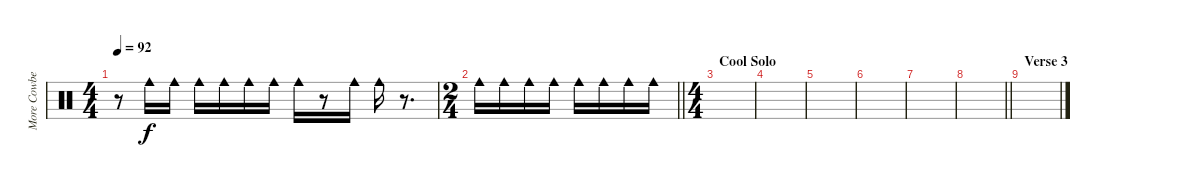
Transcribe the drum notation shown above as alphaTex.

\track ("More Cowbell!" "More Cowbe") {instrument percussion}
\staff {score}
\articulation defaults
\ts (4 4)
\tempo 92
\clef neutral
\ks c
r.8{dy f} "Cowbell medium (hit)".16 "Cowbell medium (hit)".16 "Cowbell medium (hit)".16 "Cowbell medium (hit)".16 "Cowbell medium (hit)".16 "Cowbell medium (hit)".16 "Cowbell medium (hit)".16 r.8 "Cowbell medium (hit)".16 "Cowbell medium (hit)".16 r.8{d} |
\ts (2 4)
\barLineRight lightlight "Cowbell medium (hit)".16 "Cowbell medium (hit)".16 "Cowbell medium (hit)".16 "Cowbell medium (hit)".16 "Cowbell medium (hit)".16 "Cowbell medium (hit)".16 "Cowbell medium (hit)".16 "Cowbell medium (hit)".16
|
\ts (4 4)
\section ("" "Cool Solo")
|
|
|
|
|
\barLineRight lightlight
|
\section ("" "Verse 3")
